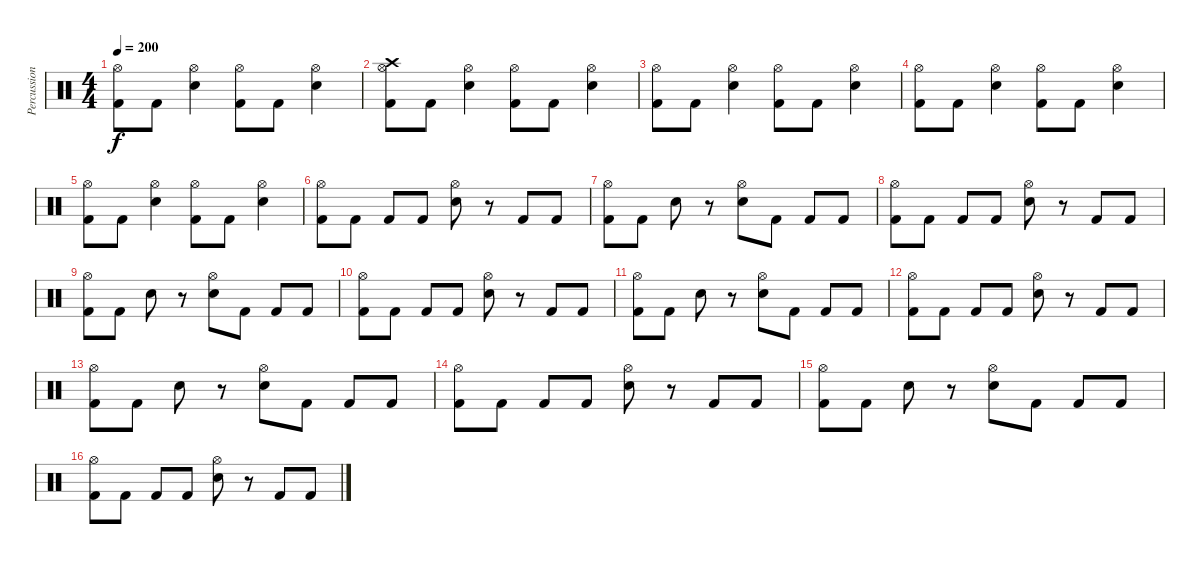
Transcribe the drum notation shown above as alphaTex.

\track ("Percussion" "Percussion") {instrument percussion}
\staff {score}
\articulation defaults
\ts (4 4)
\tempo 200
\clef neutral
\ks c
("Hi-Hat (open)" "Kick (hit) 2").8{dy f} "Kick (hit) 2".8 ("Hi-Hat (open)" "Electric Snare (hit)").4 ("Hi-Hat (open)" "Kick (hit) 2").8 "Kick (hit) 2".8 ("Hi-Hat (open)" "Electric Snare (hit)").4 |
("Hi-Hat (open)" "Crash high (hit)" "Kick (hit) 2").8 "Kick (hit) 2".8 ("Hi-Hat (open)" "Electric Snare (hit)").4 ("Hi-Hat (open)" "Kick (hit) 2").8 "Kick (hit) 2".8 ("Hi-Hat (open)" "Electric Snare (hit)").4 |
("Hi-Hat (open)" "Kick (hit) 2").8 "Kick (hit) 2".8 ("Hi-Hat (open)" "Electric Snare (hit)").4 ("Hi-Hat (open)" "Kick (hit) 2").8 "Kick (hit) 2".8 ("Hi-Hat (open)" "Electric Snare (hit)").4 |
("Hi-Hat (open)" "Kick (hit) 2").8 "Kick (hit) 2".8 ("Hi-Hat (open)" "Electric Snare (hit)").4 ("Hi-Hat (open)" "Kick (hit) 2").8 "Kick (hit) 2".8 ("Hi-Hat (open)" "Electric Snare (hit)").4 |
("Hi-Hat (open)" "Kick (hit) 2").8 "Kick (hit) 2".8 ("Hi-Hat (open)" "Electric Snare (hit)").4 ("Hi-Hat (open)" "Kick (hit) 2").8 "Kick (hit) 2".8 ("Hi-Hat (open)" "Electric Snare (hit)").4 |
("Hi-Hat (open)" "Kick (hit) 2").8 "Kick (hit) 2".8 "Kick (hit) 2".8 "Kick (hit) 2".8 ("Hi-Hat (open)" "Electric Snare (hit)").8 r.8 "Kick (hit) 2".8 "Kick (hit) 2".8 |
("Hi-Hat (open)" "Kick (hit) 2").8 "Kick (hit) 2".8 "Electric Snare (hit)".8 r.8 ("Hi-Hat (open)" "Electric Snare (hit)").8 "Kick (hit) 2".8 "Kick (hit) 2".8 "Kick (hit) 2".8 |
("Hi-Hat (open)" "Kick (hit) 2").8 "Kick (hit) 2".8 "Kick (hit) 2".8 "Kick (hit) 2".8 ("Hi-Hat (open)" "Electric Snare (hit)").8 r.8 "Kick (hit) 2".8 "Kick (hit) 2".8 |
("Hi-Hat (open)" "Kick (hit) 2").8 "Kick (hit) 2".8 "Electric Snare (hit)".8 r.8 ("Hi-Hat (open)" "Electric Snare (hit)").8 "Kick (hit) 2".8 "Kick (hit) 2".8 "Kick (hit) 2".8 |
("Hi-Hat (open)" "Kick (hit) 2").8 "Kick (hit) 2".8 "Kick (hit) 2".8 "Kick (hit) 2".8 ("Hi-Hat (open)" "Electric Snare (hit)").8 r.8 "Kick (hit) 2".8 "Kick (hit) 2".8 |
("Hi-Hat (open)" "Kick (hit) 2").8 "Kick (hit) 2".8 "Electric Snare (hit)".8 r.8 ("Hi-Hat (open)" "Electric Snare (hit)").8 "Kick (hit) 2".8 "Kick (hit) 2".8 "Kick (hit) 2".8 |
("Hi-Hat (open)" "Kick (hit) 2").8 "Kick (hit) 2".8 "Kick (hit) 2".8 "Kick (hit) 2".8 ("Hi-Hat (open)" "Electric Snare (hit)").8 r.8 "Kick (hit) 2".8 "Kick (hit) 2".8 |
("Hi-Hat (open)" "Kick (hit) 2").8 "Kick (hit) 2".8 "Electric Snare (hit)".8 r.8 ("Hi-Hat (open)" "Electric Snare (hit)").8 "Kick (hit) 2".8 "Kick (hit) 2".8 "Kick (hit) 2".8 |
("Hi-Hat (open)" "Kick (hit) 2").8 "Kick (hit) 2".8 "Kick (hit) 2".8 "Kick (hit) 2".8 ("Hi-Hat (open)" "Electric Snare (hit)").8 r.8 "Kick (hit) 2".8 "Kick (hit) 2".8 |
("Hi-Hat (open)" "Kick (hit) 2").8 "Kick (hit) 2".8 "Electric Snare (hit)".8 r.8 ("Hi-Hat (open)" "Electric Snare (hit)").8 "Kick (hit) 2".8 "Kick (hit) 2".8 "Kick (hit) 2".8 |
("Hi-Hat (open)" "Kick (hit) 2").8 "Kick (hit) 2".8 "Kick (hit) 2".8 "Kick (hit) 2".8 ("Hi-Hat (open)" "Electric Snare (hit)").8 r.8 "Kick (hit) 2".8 "Kick (hit) 2".8
